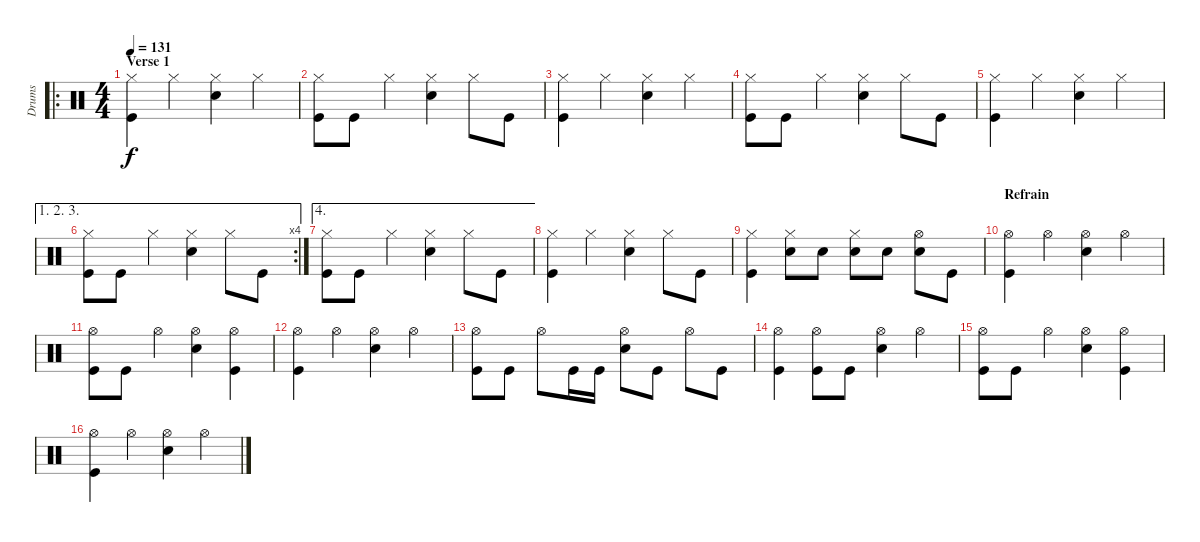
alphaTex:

\track ("Drums" "Drums") {instrument percussion}
\staff {score}
\articulation defaults
\ro
\ts (4 4)
\section ("" "Verse 1")
\tempo 131
\clef neutral
\ks c
("Hi-Hat (closed)" "Kick (hit)").4{dy f} "Hi-Hat (closed)".4 ("Hi-Hat (closed)" "Snare (hit) 2").4 "Hi-Hat (closed)".4 |
("Hi-Hat (closed)" "Kick (hit)").8 "Kick (hit)".8 "Hi-Hat (closed)".4 ("Hi-Hat (closed)" "Snare (hit) 2").4 "Hi-Hat (closed)".8 "Kick (hit)".8 |
("Hi-Hat (closed)" "Kick (hit)").4 "Hi-Hat (closed)".4 ("Hi-Hat (closed)" "Snare (hit) 2").4 "Hi-Hat (closed)".4 |
("Hi-Hat (closed)" "Kick (hit)").8 "Kick (hit)".8 "Hi-Hat (closed)".4 ("Hi-Hat (closed)" "Snare (hit) 2").4 "Hi-Hat (closed)".8 "Kick (hit)".8 |
("Hi-Hat (closed)" "Kick (hit)").4 "Hi-Hat (closed)".4 ("Hi-Hat (closed)" "Snare (hit) 2").4 "Hi-Hat (closed)".4 |
\ae (1 2 3)
\rc 4
("Hi-Hat (closed)" "Kick (hit)").8 "Kick (hit)".8 "Hi-Hat (closed)".4 ("Hi-Hat (closed)" "Snare (hit) 2").4 "Hi-Hat (closed)".8 "Kick (hit)".8 |
\ae 4
("Hi-Hat (closed)" "Kick (hit)").8 "Kick (hit)".8 "Hi-Hat (closed)".4 ("Hi-Hat (closed)" "Snare (hit) 2").4 "Hi-Hat (closed)".8 "Kick (hit)".8 |
("Hi-Hat (closed)" "Kick (hit)").4 "Hi-Hat (closed)".4 ("Hi-Hat (closed)" "Snare (hit) 2").4 "Hi-Hat (closed)".8 "Kick (hit)".8 |
("Hi-Hat (closed)" "Kick (hit)").4 ("Hi-Hat (closed)" "Snare (hit) 2").8 "Snare (hit) 2".8 ("Hi-Hat (closed)" "Snare (hit) 2").8 "Snare (hit) 2".8 ("Hi-Hat (open)" "Snare (hit) 2").8 "Kick (hit)".8 |
\section ("" "Refrain")
("Hi-Hat (open)" "Kick (hit)").4 "Hi-Hat (open)".4 ("Hi-Hat (open)" "Snare (hit) 2").4 "Hi-Hat (open)".4 |
("Hi-Hat (open)" "Kick (hit)").8 "Kick (hit)".8 "Hi-Hat (open)".4 ("Hi-Hat (open)" "Snare (hit) 2").4 ("Hi-Hat (open)" "Kick (hit)").4 |
("Hi-Hat (open)" "Kick (hit)").4 "Hi-Hat (open)".4 ("Hi-Hat (open)" "Snare (hit) 2").4 "Hi-Hat (open)".4 |
("Hi-Hat (open)" "Kick (hit)").8 "Kick (hit)".8 "Hi-Hat (open)".8 "Kick (hit)".16 "Kick (hit)".16 ("Hi-Hat (open)" "Snare (hit) 2").8 "Kick (hit)".8 "Hi-Hat (open)".8 "Kick (hit)".8 |
("Hi-Hat (open)" "Kick (hit)").4 ("Hi-Hat (open)" "Kick (hit)").8 "Kick (hit)".8 ("Hi-Hat (open)" "Snare (hit) 2").4 "Hi-Hat (open)".4 |
("Hi-Hat (open)" "Kick (hit)").8 "Kick (hit)".8 "Hi-Hat (open)".4 ("Hi-Hat (open)" "Snare (hit) 2").4 ("Hi-Hat (open)" "Kick (hit)").4 |
("Hi-Hat (open)" "Kick (hit)").4 "Hi-Hat (open)".4 ("Hi-Hat (open)" "Snare (hit) 2").4 "Hi-Hat (open)".4
